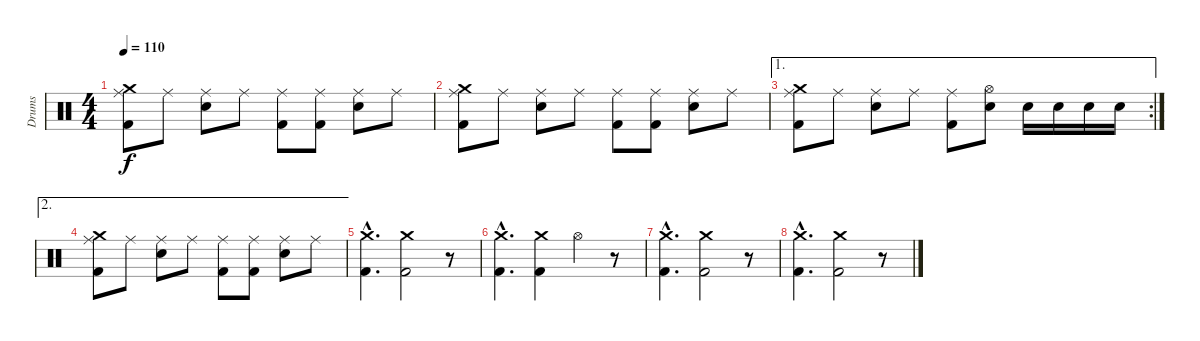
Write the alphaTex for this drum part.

\track ("Drums" "Drums") {instrument percussion}
\staff {score}
\articulation defaults
\ts (4 4)
\tempo 110
\clef neutral
\ks aminor
("Crash medium (hit)" "Ride (middle)" "Kick (hit) 2").8{dy f} "Ride (middle)".8 ("Ride (middle)" "Electric Snare (hit)").8 "Ride (middle)".8 ("Ride (middle)" "Kick (hit) 2").8 ("Ride (middle)" "Kick (hit) 2").8 ("Ride (middle)" "Electric Snare (hit)").8 "Ride (middle)".8 |
("Crash medium (hit)" "Ride (middle)" "Kick (hit) 2").8 "Ride (middle)".8 ("Ride (middle)" "Electric Snare (hit)").8 "Ride (middle)".8 ("Ride (middle)" "Kick (hit) 2").8 ("Ride (middle)" "Kick (hit) 2").8 ("Ride (middle)" "Electric Snare (hit)").8 "Ride (middle)".8 |
\ae 1
\rc 2
("Crash medium (hit)" "Ride (middle)" "Kick (hit) 2").8 "Ride (middle)".8 ("Ride (middle)" "Electric Snare (hit)").8 "Ride (middle)".8 ("Ride (middle)" "Kick (hit) 2").8 ("Hi-Hat (open)" "Electric Snare (hit)").8 "Electric Snare (hit)".16 "Electric Snare (hit)".16 "Electric Snare (hit)".16 "Electric Snare (hit)".16 |
\ae 2
("Crash medium (hit)" "Ride (middle)" "Kick (hit) 2").8 "Ride (middle)".8 ("Ride (middle)" "Electric Snare (hit)").8 "Ride (middle)".8 ("Ride (middle)" "Kick (hit) 2").8 ("Ride (middle)" "Kick (hit) 2").8 ("Ride (middle)" "Electric Snare (hit)").8 "Ride (middle)".8 |
("Crash medium (hit)"{hac} "Kick (hit) 2"{hac}).4{d} ("Crash medium (hit)" "Kick (hit) 2").2 r.8 |
("Crash medium (hit)"{hac} "Kick (hit) 2"{hac}).4{d} ("Crash medium (hit)" "Kick (hit) 2").4 "Hi-Hat (open)".4 r.8 |
("Crash medium (hit)"{hac} "Kick (hit) 2"{hac}).4{d} ("Crash medium (hit)" "Kick (hit) 2").2 r.8 |
("Crash medium (hit)"{hac} "Kick (hit) 2"{hac}).4{d} ("Crash medium (hit)" "Kick (hit) 2").2 r.8
